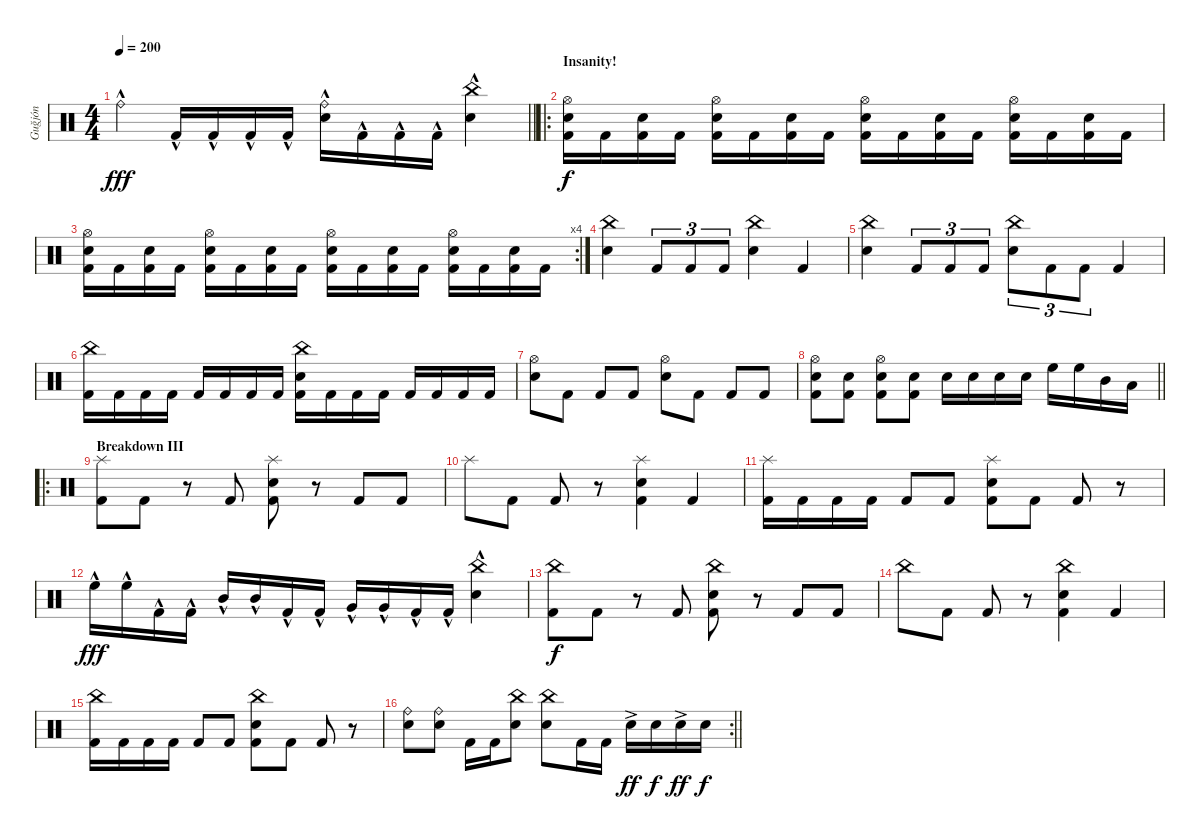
\track ("Guğjón" "Guğjón") {instrument percussion}
\staff {score}
\articulation defaults
\ts (4 4)
\tempo 200
\clef neutral
\barLineRight lightlight
\ks c "Ride (bell)"{hac}.4{dy fff} "Kick (hit) 2"{hac}.16 "Kick (hit) 2"{hac}.16 "Kick (hit) 2"{hac}.16 "Kick (hit) 2"{hac}.16
("Ride (bell)"{hac} "Electric Snare (hit)"{hac}).16 "Kick (hit) 2"{hac}.16 "Kick (hit) 2"{hac}.16 "Kick (hit) 2"{hac}.16 ("China (hit)" "Electric Snare (hit)"{hac}).4 |
\ro
\section ("" "Insanity!")
("Hi-Hat (open)" "Electric Snare (hit)" "Kick (hit) 2").16{dy f} "Kick (hit) 2".16 ("Electric Snare (hit)" "Kick (hit) 2").16 "Kick (hit) 2".16 ("Hi-Hat (open)" "Electric Snare (hit)" "Kick (hit) 2").16 "Kick (hit) 2".16 ("Electric Snare (hit)" "Kick (hit) 2").16 "Kick (hit) 2".16 ("Hi-Hat (open)" "Electric Snare (hit)" "Kick (hit) 2").16 "Kick (hit) 2".16 ("Electric Snare (hit)" "Kick (hit) 2").16 "Kick (hit) 2".16 ("Hi-Hat (open)" "Electric Snare (hit)" "Kick (hit) 2").16 "Kick (hit) 2".16 ("Electric Snare (hit)" "Kick (hit) 2").16 "Kick (hit) 2".16 |
\rc 4
("Hi-Hat (open)" "Electric Snare (hit)" "Kick (hit) 2").16 "Kick (hit) 2".16 ("Electric Snare (hit)" "Kick (hit) 2").16 "Kick (hit) 2".16 ("Hi-Hat (open)" "Electric Snare (hit)" "Kick (hit) 2").16 "Kick (hit) 2".16 ("Electric Snare (hit)" "Kick (hit) 2").16 "Kick (hit) 2".16 ("Hi-Hat (open)" "Electric Snare (hit)" "Kick (hit) 2").16 "Kick (hit) 2".16 ("Electric Snare (hit)" "Kick (hit) 2").16 "Kick (hit) 2".16 ("Hi-Hat (open)" "Electric Snare (hit)" "Kick (hit) 2").16 "Kick (hit) 2".16 ("Electric Snare (hit)" "Kick (hit) 2").16 "Kick (hit) 2".16 |
("China (hit)" "Electric Snare (hit)").4 "Kick (hit) 2".8{tu (3 2)} "Kick (hit) 2".8{tu (3 2)} "Kick (hit) 2".8{tu (3 2)} ("China (hit)" "Electric Snare (hit)").4 "Kick (hit) 2".4 |
("China (hit)" "Electric Snare (hit)").4 "Kick (hit) 2".8{tu (3 2)} "Kick (hit) 2".8{tu (3 2)} "Kick (hit) 2".8{tu (3 2)} ("China (hit)" "Electric Snare (hit)").8{tu (3 2)} "Kick (hit) 2".8{tu (3 2)} "Kick (hit) 2".8{tu (3 2)} "Kick (hit) 2".4 |
("China (hit)" "Kick (hit) 2").16 "Kick (hit) 2".16 "Kick (hit) 2".16 "Kick (hit) 2".16 "Kick (hit) 2".16 "Kick (hit) 2".16 "Kick (hit) 2".16 "Kick (hit) 2".16 ("China (hit)" "Electric Snare (hit)" "Kick (hit) 2").16 "Kick (hit) 2".16 "Kick (hit) 2".16 "Kick (hit) 2".16 "Kick (hit) 2".16 "Kick (hit) 2".16 "Kick (hit) 2".16 "Kick (hit) 2".16 |
("Hi-Hat (open)" "Electric Snare (hit)").8 "Kick (hit) 2".8 "Kick (hit) 2".8 "Kick (hit) 2".8 ("Hi-Hat (open)" "Electric Snare (hit)").8 "Kick (hit) 2".8 "Kick (hit) 2".8 "Kick (hit) 2".8 |
\barLineRight lightlight
("Hi-Hat (open)" "Electric Snare (hit)" "Kick (hit) 2").8 ("Electric Snare (hit)" "Kick (hit) 2").8 ("Hi-Hat (open)" "Electric Snare (hit)" "Kick (hit) 2").8 ("Electric Snare (hit)" "Kick (hit) 2").8 "Electric Snare (hit)".16 "Electric Snare (hit)".16 "Electric Snare (hit)".16 "Electric Snare (hit)".16 "High Floor Tom (hit)".16 "High Floor Tom (hit)".16 "Mid Tom (hit)".16 "Low Tom (hit)".16 |
\ro
\section ("" "Breakdown III")
("Splash (hit)" "Kick (hit) 2").8 "Kick (hit) 2".8 r.8 "Kick (hit) 2".8 ("Splash (hit)" "Electric Snare (hit)" "Kick (hit) 2").8 r.8 "Kick (hit) 2".8 "Kick (hit) 2".8 |
"Splash (hit)".8 "Kick (hit) 2".8 "Kick (hit) 2".8 r.8 ("Splash (hit)" "Electric Snare (hit)" "Kick (hit) 2").4 "Kick (hit) 2".4 |
("Splash (hit)" "Kick (hit) 2").16 "Kick (hit) 2".16 "Kick (hit) 2".16 "Kick (hit) 2".16 "Kick (hit) 2".8 "Kick (hit) 2".8 ("Splash (hit)" "Electric Snare (hit)" "Kick (hit) 2").8 "Kick (hit) 2".8 "Kick (hit) 2".8 r.8 |
"High Floor Tom (hit)"{hac}.16{dy fff balance 16} "High Floor Tom (hit)"{hac}.16 "Kick (hit) 2"{hac}.16{balance 8} "Kick (hit) 2"{hac}.16 "Mid Tom (hit)"{hac}.16 "Mid Tom (hit)"{hac}.16 "Kick (hit) 2"{hac}.16 "Kick (hit) 2"{hac}.16 "Very Low Tom (hit)"{hac}.16{balance 0} "Very Low Tom (hit)"{hac}.16 "Kick (hit) 2"{hac}.16{balance 8} "Kick (hit) 2"{hac}.16 ("China (hit)"{hac} "Electric Snare (hit)"{hac}).4 |
("China (hit)" "Kick (hit) 2").8{dy f} "Kick (hit) 2".8 r.8 "Kick (hit) 2".8 ("China (hit)" "Electric Snare (hit)" "Kick (hit) 2").8 r.8 "Kick (hit) 2".8 "Kick (hit) 2".8 |
"China (hit)".8 "Kick (hit) 2".8 "Kick (hit) 2".8 r.8 ("China (hit)" "Electric Snare (hit)" "Kick (hit) 2").4 "Kick (hit) 2".4 |
("China (hit)" "Kick (hit) 2").16 "Kick (hit) 2".16 "Kick (hit) 2".16 "Kick (hit) 2".16 "Kick (hit) 2".8 "Kick (hit) 2".8 ("China (hit)" "Electric Snare (hit)" "Kick (hit) 2").8 "Kick (hit) 2".8 "Kick (hit) 2".8 r.8 |
\rc 2
\barLineRight lightlight
("Ride (bell)" "Electric Snare (hit)").8 ("Ride (bell)" "Electric Snare (hit)").8 "Kick (hit) 2".16 "Kick (hit) 2".16 ("China (hit)" "Electric Snare (hit)").8 ("China (hit)" "Electric Snare (hit)").8 "Kick (hit) 2".16 "Kick (hit) 2".16 "Electric Snare (hit)"{ac}.16{dy ff} "Electric Snare (hit)".16{dy f} "Electric Snare (hit)"{ac}.16{dy ff} "Electric Snare (hit)".16{dy f}
